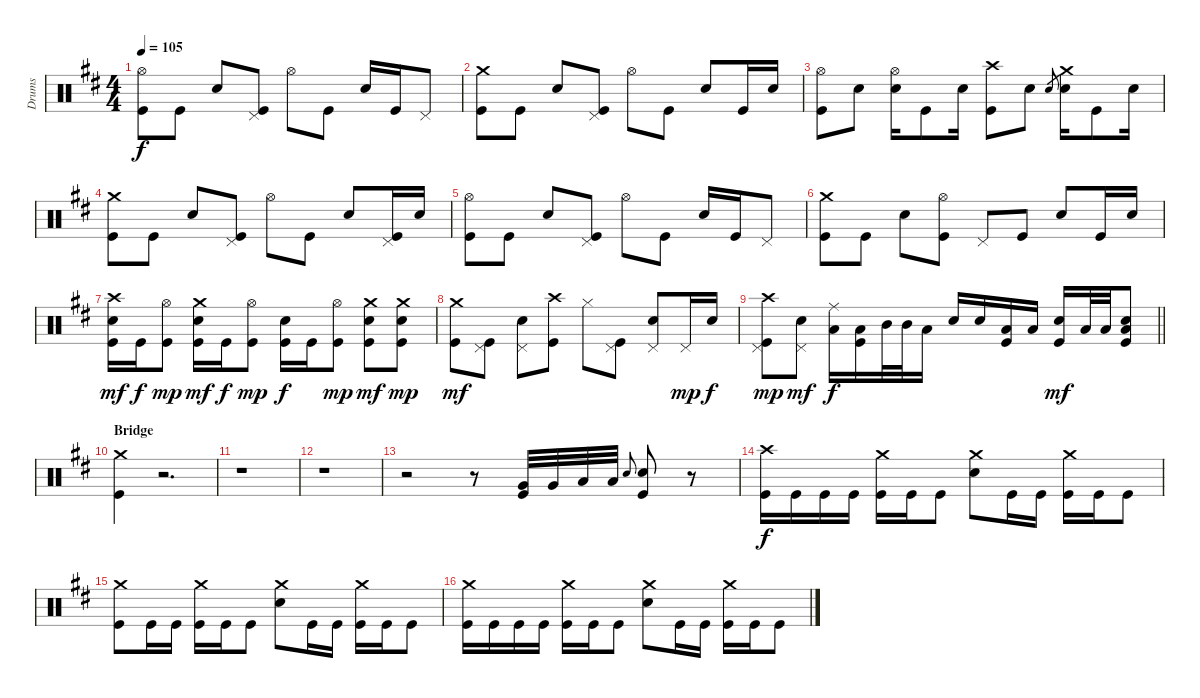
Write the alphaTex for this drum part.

\track ("Drums" "Drums") {instrument percussion}
\staff {score}
\articulation defaults
\ts (4 4)
\tempo 105
\clef neutral
\ks d
("Hi-Hat (open)" "Kick (hit)").8{dy f} "Kick (hit)".8 "Snare (hit) 2".8 ("Pedal Hi-Hat (hit)" "Kick (hit)").8 "Hi-Hat (open)".8 "Kick (hit)".8 "Snare (hit) 2".16 "Kick (hit)".16 "Pedal Hi-Hat (hit)".8 |
("Crash medium (hit)" "Kick (hit)").8 "Kick (hit)".8 "Snare (hit) 2".8 ("Pedal Hi-Hat (hit)" "Kick (hit)").8 "Hi-Hat (open)".8 "Kick (hit)".8 "Snare (hit) 2".8 "Kick (hit)".16 "Snare (hit) 2".16 |
("Hi-Hat (open)" "Kick (hit)").8 "Snare (hit) 2".8 ("Hi-Hat (open)" "Snare (hit) 2").16 "Kick (hit)".8 "Snare (hit) 2".16 ("Crash high (hit)" "Kick (hit)").8 "Snare (hit) 2".8 "Snare (hit) 2".8{gr} ("Crash medium (hit)" "Snare (hit) 2").16 "Kick (hit)".8 "Snare (hit) 2".16 |
("Crash medium (hit)" "Kick (hit)").8 "Kick (hit)".8 "Snare (hit) 2".8 ("Pedal Hi-Hat (hit)" "Kick (hit)").8 "Hi-Hat (open)".8 "Kick (hit)".8 "Snare (hit) 2".8 ("Pedal Hi-Hat (hit)" "Kick (hit)").16 "Snare (hit) 2".16 |
("Hi-Hat (open)" "Kick (hit)").8 "Kick (hit)".8 "Snare (hit) 2".8 ("Pedal Hi-Hat (hit)" "Kick (hit)").8 "Hi-Hat (open)".8 "Kick (hit)".8 "Snare (hit) 2".16 "Kick (hit)".16 "Pedal Hi-Hat (hit)".8 |
("Crash medium (hit)" "Kick (hit)").8 "Kick (hit)".8 "Snare (hit) 2".8 ("Hi-Hat (open)" "Kick (hit)").8 "Pedal Hi-Hat (hit)".8 "Kick (hit)".8 "Snare (hit) 2".8 "Kick (hit)".16 "Snare (hit) 2".16 |
("Crash high (hit)" "Snare (hit) 2" "Kick (hit)").16{dy mf} "Kick (hit)".16{dy f} ("Hi-Hat (open)" "Kick (hit)").8{dy mp} ("Crash medium (hit)" "Snare (hit) 2" "Kick (hit)").16{dy mf} "Kick (hit)".16{dy f} ("Hi-Hat (open)" "Kick (hit)").8{dy mp} ("Snare (hit) 2" "Kick (hit)").16{dy f} "Kick (hit)".16 ("Hi-Hat (open)" "Kick (hit)").8{dy mp} ("Crash medium (hit)" "Snare (hit) 2" "Kick (hit)").8{dy mf} ("Crash medium (hit)" "Snare (hit) 2" "Kick (hit)").8{dy mp} |
("Crash medium (hit)" "Kick (hit)").8{dy mf} ("Pedal Hi-Hat (hit)" "Kick (hit)").8 ("Pedal Hi-Hat (hit)" "Snare (hit) 2").8 ("Crash high (hit)" "Kick (hit)").8 "Hi-Hat (closed)".8 ("Pedal Hi-Hat (hit)" "Kick (hit)").8 ("Pedal Hi-Hat (hit)" "Snare (hit) 2").8 "Pedal Hi-Hat (hit)".16{dy mp} "Snare (hit) 2".16{dy f} |
\barLineRight lightlight
("Crash high (hit)" "Pedal Hi-Hat (hit)" "Kick (hit)").8{dy mp} ("Pedal Hi-Hat (hit)" "Snare (hit) 2").8{dy mf} ("Ride (middle)" "Low Floor Tom (hit)").16{dy f} ("Low Tom (hit)" "Kick (hit)").16 "Mid Tom (hit)".32 "Mid Tom (hit)".32 "Low Tom (hit)".16 "Snare (hit) 2".16 "Snare (hit) 2".16 ("Low Floor Tom (hit)" "Kick (hit)").16 "Low Floor Tom (hit)".16 ("Snare (hit) 2" "Kick (hit)").16{dy mf} "Low Floor Tom (hit)".32 "Low Floor Tom (hit)".32 ("Low Floor Tom (hit)" "Snare (hit) 2" "Kick (hit)").8 |
\section ("" "Bridge")
("Crash medium (hit)" "Kick (hit)").4 r.2{d} |
r.1 |
r.1 |
r.2 r.8 ("Very Low Tom (hit)" "Kick (hit)").32 "Very Low Tom (hit)".32 "Low Floor Tom (hit)".32 "Low Floor Tom (hit)".32 "Snare (hit) 2".8{gr onbeat} ("Snare (hit) 2" "Kick (hit)").8 r.8 |
("Crash high (hit)" "Kick (hit)").16{dy f} "Kick (hit)".16 "Kick (hit)".16 "Kick (hit)".16 ("Crash medium (hit)" "Kick (hit)").16 "Kick (hit)".16 "Kick (hit)".8 ("Crash medium (hit)" "Snare (hit) 2").8 "Kick (hit)".16 "Kick (hit)".16 ("Crash medium (hit)" "Kick (hit)").16 "Kick (hit)".16 "Kick (hit)".8 |
("Crash medium (hit)" "Kick (hit)").8 "Kick (hit)".16 "Kick (hit)".16 ("Crash medium (hit)" "Kick (hit)").16 "Kick (hit)".16 "Kick (hit)".8 ("Crash medium (hit)" "Snare (hit) 2").8 "Kick (hit)".16 "Kick (hit)".16 ("Crash medium (hit)" "Kick (hit)").16 "Kick (hit)".16 "Kick (hit)".8 |
("Crash medium (hit)" "Kick (hit)").16 "Kick (hit)".16 "Kick (hit)".16 "Kick (hit)".16 ("Crash medium (hit)" "Kick (hit)").16 "Kick (hit)".16 "Kick (hit)".8 ("Crash medium (hit)" "Snare (hit) 2").8 "Kick (hit)".16 "Kick (hit)".16 ("Crash medium (hit)" "Kick (hit)").16 "Kick (hit)".16 "Kick (hit)".8
